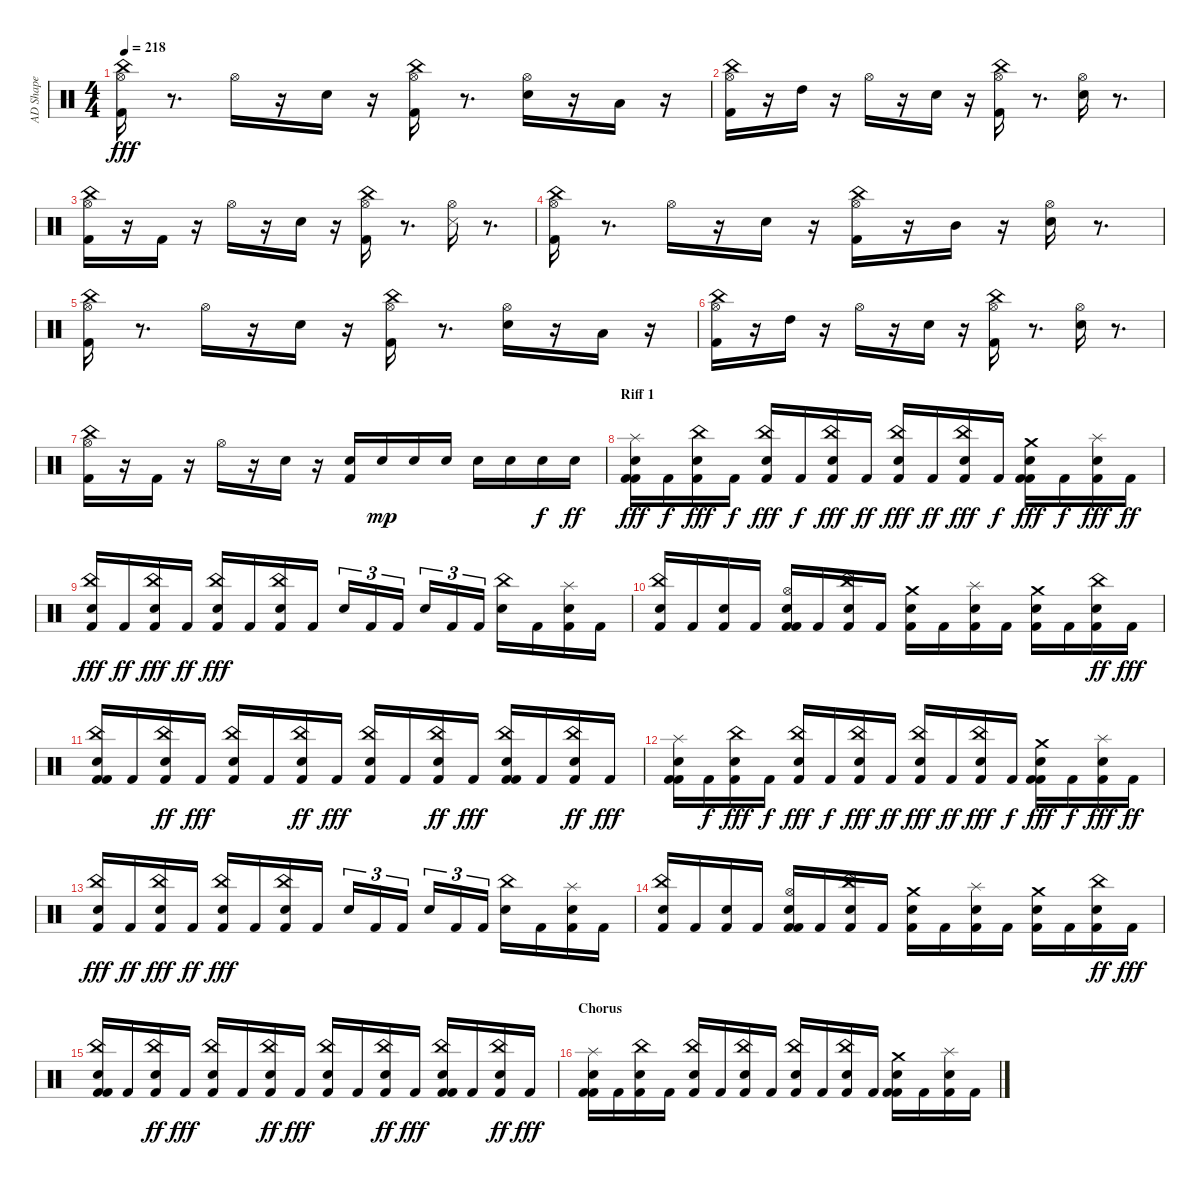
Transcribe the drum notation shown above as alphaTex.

\track ("AD Shape" "AD Shape") {instrument percussion}
\staff {score}
\articulation defaults
\ts (4 4)
\tempo 218
\clef neutral
\ks c
("Kick (hit) 2" "Hi-Hat (open)" "China (hit)").16{dy fff} r.8{d} "Hi-Hat (open)".16 r.16 "Snare (hit) 2".16 r.16 ("Kick (hit) 2" "Hi-Hat (open)" "China (hit)").16 r.8{d} ("Snare (hit) 2" "Hi-Hat (open)").16 r.16 "Low Tom (hit)".16 r.16 |
("Kick (hit) 2" "Hi-Hat (open)" "China (hit)").16 r.16 "High Tom (hit)".16 r.16 "Hi-Hat (open)".16 r.16 "Snare (hit) 2".16 r.16 ("Kick (hit) 2" "Hi-Hat (open)" "China (hit)").16 r.8{d} ("Snare (hit) 2" "Hi-Hat (open)").16 r.8{d} |
("Kick (hit) 2" "Hi-Hat (open)" "China (hit)").16 r.16 "Kick (hit) 2".16 r.16 "Hi-Hat (open)".16 r.16 "Snare (hit) 2".16 r.16 ("Kick (hit) 2" "Hi-Hat (open)" "China (hit)").16 r.8{d} ("Snare (side stick) 3" "Hi-Hat (open)").16 r.8{d} |
("Kick (hit) 2" "Hi-Hat (open)" "China (hit)").16 r.8{d} "Hi-Hat (open)".16 r.16 "Snare (hit) 2".16 r.16 ("Kick (hit) 2" "Hi-Hat (open)" "China (hit)").16 r.16 "Mid Tom (hit)".16 r.16 ("Snare (hit) 2" "Hi-Hat (open)").16 r.8{d} |
("Kick (hit) 2" "Hi-Hat (open)" "China (hit)").16 r.8{d} "Hi-Hat (open)".16 r.16 "Snare (hit) 2".16 r.16 ("Kick (hit) 2" "Hi-Hat (open)" "China (hit)").16 r.8{d} ("Snare (hit) 2" "Hi-Hat (open)").16 r.16 "Low Tom (hit)".16 r.16 |
("Kick (hit) 2" "Hi-Hat (open)" "China (hit)").16 r.16 "High Tom (hit)".16 r.16 "Hi-Hat (open)".16 r.16 "Snare (hit) 2".16 r.16 ("Kick (hit) 2" "Hi-Hat (open)" "China (hit)").16 r.8{d} ("Snare (hit) 2" "Hi-Hat (open)").16 r.8{d} |
("Kick (hit) 2" "Hi-Hat (open)" "China (hit)").16 r.16 "Kick (hit) 2".16 r.16 "Hi-Hat (open)".16 r.16 "Snare (hit) 2".16 r.16 ("Kick (hit) 2" "Snare (hit) 2").16 "Snare (hit) 2".16{dy mp} "Snare (hit) 2".16 "Snare (hit) 2".16 "Snare (hit) 2".16 "Snare (hit) 2".16 "Snare (hit) 2".16{dy f} "Snare (hit) 2".16{dy ff} |
\section ("" "Riff 1")
("Kick (hit) 2" "Kick (hit) 2" "Snare (hit) 2" "Splash (hit)").16{dy fff} "Kick (hit) 2".16{dy f} ("Kick (hit) 2" "Snare (hit) 2" "China (hit)").16{dy fff} "Kick (hit) 2".16{dy f} ("Kick (hit) 2" "Snare (hit) 2" "China (hit)").16{dy fff} "Kick (hit) 2".16{dy f} ("Kick (hit) 2" "Snare (hit) 2" "China (hit)").16{dy fff} "Kick (hit) 2".16{dy ff} ("Kick (hit) 2" "Snare (hit) 2" "China (hit)").16{dy fff} "Kick (hit) 2".16{dy ff} ("Kick (hit) 2" "Snare (hit) 2" "China (hit)").16{dy fff} "Kick (hit) 2".16{dy f} ("Kick (hit) 2" "Kick (hit) 2" "Snare (hit) 2" "Crash medium (hit)").16{dy fff} "Kick (hit) 2".16{dy f} ("Kick (hit) 2" "Snare (hit) 2" "Splash (hit)").16{dy fff} "Kick (hit) 2".16{dy ff} |
("Kick (hit) 2" "Snare (hit) 2" "China (hit)").16{dy fff} "Kick (hit) 2".16{dy ff} ("Kick (hit) 2" "Snare (hit) 2" "China (hit)").16{dy fff} "Kick (hit) 2".16{dy ff} ("Kick (hit) 2" "Snare (hit) 2" "China (hit)").16{dy fff} "Kick (hit) 2".16 ("Kick (hit) 2" "Snare (hit) 2" "China (hit)").16 "Kick (hit) 2".16 "Snare (hit) 2".16{tu (3 2)} "Kick (hit) 2".16{tu (3 2)} "Kick (hit) 2".16{tu (3 2)} "Snare (hit) 2".16{tu (3 2)} "Kick (hit) 2".16{tu (3 2)} "Kick (hit) 2".16{tu (3 2)} ("Snare (hit) 2" "China (hit)").16 "Kick (hit) 2".16 ("Kick (hit) 2" "Snare (hit) 2" "Splash (hit)").16 "Kick (hit) 2".16 |
("Kick (hit) 2" "Snare (hit) 2" "China (hit)").16 "Kick (hit) 2".16 ("Kick (hit) 2" "Snare (hit) 2").16 "Kick (hit) 2".16 ("Kick (hit) 2" "Kick (hit) 2" "Snare (hit) 2" "Hi-Hat (open)").16 "Kick (hit) 2".16 ("Kick (hit) 2" "Snare (hit) 2" "China (hit)").16 "Kick (hit) 2".16 ("Kick (hit) 2" "Snare (hit) 2" "Crash medium (hit)").16 "Kick (hit) 2".16 ("Kick (hit) 2" "Snare (hit) 2" "Splash (hit)").16 "Kick (hit) 2".16 ("Kick (hit) 2" "Snare (hit) 2" "Crash medium (hit)").16 "Kick (hit) 2".16 ("Kick (hit) 2" "Snare (hit) 2" "China (hit)").16{dy ff} "Kick (hit) 2".16{dy fff} |
("Kick (hit) 2" "Kick (hit) 2" "Snare (hit) 2" "China (hit)").16 "Kick (hit) 2".16 ("Kick (hit) 2" "Snare (hit) 2" "China (hit)").16{dy ff} "Kick (hit) 2".16{dy fff} ("Kick (hit) 2" "Snare (hit) 2" "China (hit)").16 "Kick (hit) 2".16 ("Kick (hit) 2" "Snare (hit) 2" "China (hit)").16{dy ff} "Kick (hit) 2".16{dy fff} ("Kick (hit) 2" "Snare (hit) 2" "China (hit)").16 "Kick (hit) 2".16 ("Kick (hit) 2" "Snare (hit) 2" "China (hit)").16{dy ff} "Kick (hit) 2".16{dy fff} ("Kick (hit) 2" "Kick (hit) 2" "Snare (hit) 2" "China (hit)").16 "Kick (hit) 2".16 ("Kick (hit) 2" "Snare (hit) 2" "China (hit)").16{dy ff} "Kick (hit) 2".16{dy fff} |
("Kick (hit) 2" "Kick (hit) 2" "Snare (hit) 2" "Splash (hit)").16 "Kick (hit) 2".16{dy f} ("Kick (hit) 2" "Snare (hit) 2" "China (hit)").16{dy fff} "Kick (hit) 2".16{dy f} ("Kick (hit) 2" "Snare (hit) 2" "China (hit)").16{dy fff} "Kick (hit) 2".16{dy f} ("Kick (hit) 2" "Snare (hit) 2" "China (hit)").16{dy fff} "Kick (hit) 2".16{dy ff} ("Kick (hit) 2" "Snare (hit) 2" "China (hit)").16{dy fff} "Kick (hit) 2".16{dy ff} ("Kick (hit) 2" "Snare (hit) 2" "China (hit)").16{dy fff} "Kick (hit) 2".16{dy f} ("Kick (hit) 2" "Kick (hit) 2" "Snare (hit) 2" "Crash medium (hit)").16{dy fff} "Kick (hit) 2".16{dy f} ("Kick (hit) 2" "Snare (hit) 2" "Splash (hit)").16{dy fff} "Kick (hit) 2".16{dy ff} |
("Kick (hit) 2" "Snare (hit) 2" "China (hit)").16{dy fff} "Kick (hit) 2".16{dy ff} ("Kick (hit) 2" "Snare (hit) 2" "China (hit)").16{dy fff} "Kick (hit) 2".16{dy ff} ("Kick (hit) 2" "Snare (hit) 2" "China (hit)").16{dy fff} "Kick (hit) 2".16 ("Kick (hit) 2" "Snare (hit) 2" "China (hit)").16 "Kick (hit) 2".16 "Snare (hit) 2".16{tu (3 2)} "Kick (hit) 2".16{tu (3 2)} "Kick (hit) 2".16{tu (3 2)} "Snare (hit) 2".16{tu (3 2)} "Kick (hit) 2".16{tu (3 2)} "Kick (hit) 2".16{tu (3 2)} ("Snare (hit) 2" "China (hit)").16 "Kick (hit) 2".16 ("Kick (hit) 2" "Snare (hit) 2" "Splash (hit)").16 "Kick (hit) 2".16 |
("Kick (hit) 2" "Snare (hit) 2" "China (hit)").16 "Kick (hit) 2".16 ("Kick (hit) 2" "Snare (hit) 2").16 "Kick (hit) 2".16 ("Kick (hit) 2" "Kick (hit) 2" "Snare (hit) 2" "Hi-Hat (open)").16 "Kick (hit) 2".16 ("Kick (hit) 2" "Snare (hit) 2" "China (hit)").16 "Kick (hit) 2".16 ("Kick (hit) 2" "Snare (hit) 2" "Crash medium (hit)").16 "Kick (hit) 2".16 ("Kick (hit) 2" "Snare (hit) 2" "Splash (hit)").16 "Kick (hit) 2".16 ("Kick (hit) 2" "Snare (hit) 2" "Crash medium (hit)").16 "Kick (hit) 2".16 ("Kick (hit) 2" "Snare (hit) 2" "China (hit)").16{dy ff} "Kick (hit) 2".16{dy fff} |
("Kick (hit) 2" "Kick (hit) 2" "Snare (hit) 2" "China (hit)").16 "Kick (hit) 2".16 ("Kick (hit) 2" "Snare (hit) 2" "China (hit)").16{dy ff} "Kick (hit) 2".16{dy fff} ("Kick (hit) 2" "Snare (hit) 2" "China (hit)").16 "Kick (hit) 2".16 ("Kick (hit) 2" "Snare (hit) 2" "China (hit)").16{dy ff} "Kick (hit) 2".16{dy fff} ("Kick (hit) 2" "Snare (hit) 2" "China (hit)").16 "Kick (hit) 2".16 ("Kick (hit) 2" "Snare (hit) 2" "China (hit)").16{dy ff} "Kick (hit) 2".16{dy fff} ("Kick (hit) 2" "Kick (hit) 2" "Snare (hit) 2" "China (hit)").16 "Kick (hit) 2".16 ("Kick (hit) 2" "Snare (hit) 2" "China (hit)").16{dy ff} "Kick (hit) 2".16{dy fff} |
\section ("" "Chorus")
("Kick (hit) 2" "Kick (hit) 2" "Snare (hit) 2" "Splash (hit)").16 "Kick (hit) 2".16 ("Kick (hit) 2" "Snare (hit) 2" "China (hit)").16 "Kick (hit) 2".16 ("Kick (hit) 2" "Snare (hit) 2" "China (hit)").16 "Kick (hit) 2".16 ("Kick (hit) 2" "Snare (hit) 2" "China (hit)").16 "Kick (hit) 2".16 ("Kick (hit) 2" "Snare (hit) 2" "China (hit)").16 "Kick (hit) 2".16 ("Kick (hit) 2" "Snare (hit) 2" "China (hit)").16 "Kick (hit) 2".16 ("Kick (hit) 2" "Kick (hit) 2" "Snare (hit) 2" "Crash medium (hit)").16 "Kick (hit) 2".16 ("Kick (hit) 2" "Snare (hit) 2" "Splash (hit)").16 "Kick (hit) 2".16
